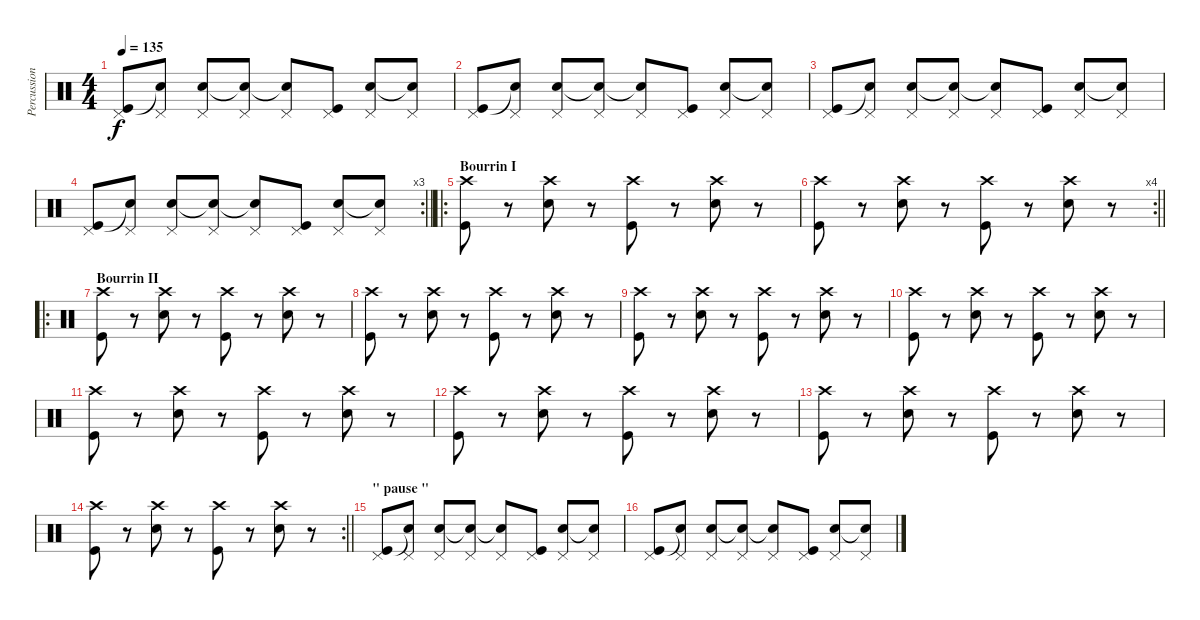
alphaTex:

\track ("Percussions" "Percussion") {instrument percussion}
\staff {score}
\articulation defaults
\ts (4 4)
\tempo 135
\clef neutral
\ks c
("Pedal Hi-Hat (hit)" "Kick (hit)").8{dy f} ("Pedal Hi-Hat (hit)" "Snare (hit)"{t}).8 ("Pedal Hi-Hat (hit)" "Electric Snare (hit)").8 ("Pedal Hi-Hat (hit)" "Snare (hit)"{t}).8 ("Pedal Hi-Hat (hit)" "Snare (hit)"{t}).8 ("Pedal Hi-Hat (hit)" "Kick (hit)").8 ("Pedal Hi-Hat (hit)" "Electric Snare (hit)").8 ("Pedal Hi-Hat (hit)" "Snare (hit)"{t}).8 |
("Pedal Hi-Hat (hit)" "Kick (hit)").8 ("Pedal Hi-Hat (hit)" "Snare (hit)"{t}).8 ("Pedal Hi-Hat (hit)" "Electric Snare (hit)").8 ("Pedal Hi-Hat (hit)" "Snare (hit)"{t}).8 ("Pedal Hi-Hat (hit)" "Snare (hit)"{t}).8 ("Pedal Hi-Hat (hit)" "Kick (hit)").8 ("Pedal Hi-Hat (hit)" "Electric Snare (hit)").8 ("Pedal Hi-Hat (hit)" "Snare (hit)"{t}).8 |
("Pedal Hi-Hat (hit)" "Kick (hit)").8 ("Pedal Hi-Hat (hit)" "Snare (hit)"{t}).8 ("Pedal Hi-Hat (hit)" "Electric Snare (hit)").8 ("Pedal Hi-Hat (hit)" "Snare (hit)"{t}).8 ("Pedal Hi-Hat (hit)" "Snare (hit)"{t}).8 ("Pedal Hi-Hat (hit)" "Kick (hit)").8 ("Pedal Hi-Hat (hit)" "Electric Snare (hit)").8 ("Pedal Hi-Hat (hit)" "Snare (hit)"{t}).8 |
\rc 3
\barLineRight lightlight
("Pedal Hi-Hat (hit)" "Kick (hit)").8 ("Pedal Hi-Hat (hit)" "Snare (hit)"{t}).8 ("Pedal Hi-Hat (hit)" "Electric Snare (hit)").8 ("Pedal Hi-Hat (hit)" "Snare (hit)"{t}).8 ("Pedal Hi-Hat (hit)" "Snare (hit)"{t}).8 ("Pedal Hi-Hat (hit)" "Kick (hit)").8 ("Pedal Hi-Hat (hit)" "Electric Snare (hit)").8 ("Pedal Hi-Hat (hit)" "Snare (hit)"{t}).8 |
\ro
\section ("" "Bourrin I")
("Crash high (hit)" "Kick (hit)").8 r.8 ("Crash high (hit)" "Electric Snare (hit)").8 r.8 ("Crash high (hit)" "Kick (hit)").8 r.8 ("Crash high (hit)" "Electric Snare (hit)").8 r.8 |
\rc 4
\barLineRight lightlight
("Crash high (hit)" "Kick (hit)").8 r.8 ("Crash high (hit)" "Electric Snare (hit)").8 r.8 ("Crash high (hit)" "Kick (hit)").8 r.8 ("Crash high (hit)" "Electric Snare (hit)").8 r.8 |
\ro
\section ("" "Bourrin II")
("Crash high (hit)" "Kick (hit)").8 r.8 ("Crash high (hit)" "Electric Snare (hit)").8 r.8 ("Crash high (hit)" "Kick (hit)").8 r.8 ("Crash high (hit)" "Electric Snare (hit)").8 r.8 |
("Crash high (hit)" "Kick (hit)").8 r.8 ("Crash high (hit)" "Electric Snare (hit)").8 r.8 ("Crash high (hit)" "Kick (hit)").8 r.8 ("Crash high (hit)" "Electric Snare (hit)").8 r.8 |
("Crash high (hit)" "Kick (hit)").8 r.8 ("Crash high (hit)" "Electric Snare (hit)").8 r.8 ("Crash high (hit)" "Kick (hit)").8 r.8 ("Crash high (hit)" "Electric Snare (hit)").8 r.8 |
("Crash high (hit)" "Kick (hit)").8 r.8 ("Crash high (hit)" "Electric Snare (hit)").8 r.8 ("Crash high (hit)" "Kick (hit)").8 r.8 ("Crash high (hit)" "Electric Snare (hit)").8 r.8 |
("Crash high (hit)" "Kick (hit)").8 r.8 ("Crash high (hit)" "Electric Snare (hit)").8 r.8 ("Crash high (hit)" "Kick (hit)").8 r.8 ("Crash high (hit)" "Electric Snare (hit)").8 r.8 |
("Crash high (hit)" "Kick (hit)").8 r.8 ("Crash high (hit)" "Electric Snare (hit)").8 r.8 ("Crash high (hit)" "Kick (hit)").8 r.8 ("Crash high (hit)" "Electric Snare (hit)").8 r.8 |
("Crash high (hit)" "Kick (hit)").8 r.8 ("Crash high (hit)" "Electric Snare (hit)").8 r.8 ("Crash high (hit)" "Kick (hit)").8 r.8 ("Crash high (hit)" "Electric Snare (hit)").8 r.8 |
\rc 2
\barLineRight lightlight
("Crash high (hit)" "Kick (hit)").8 r.8 ("Crash high (hit)" "Electric Snare (hit)").8 r.8 ("Crash high (hit)" "Kick (hit)").8 r.8 ("Crash high (hit)" "Electric Snare (hit)").8 r.8 |
\section ("" "\" pause \"")
("Pedal Hi-Hat (hit)" "Kick (hit)").8 ("Pedal Hi-Hat (hit)" "Snare (hit)"{t}).8 ("Pedal Hi-Hat (hit)" "Electric Snare (hit)").8 ("Pedal Hi-Hat (hit)" "Snare (hit)"{t}).8 ("Pedal Hi-Hat (hit)" "Snare (hit)"{t}).8 ("Pedal Hi-Hat (hit)" "Kick (hit)").8 ("Pedal Hi-Hat (hit)" "Electric Snare (hit)").8 ("Pedal Hi-Hat (hit)" "Snare (hit)"{t}).8 |
("Pedal Hi-Hat (hit)" "Kick (hit)").8 ("Pedal Hi-Hat (hit)" "Snare (hit)"{t}).8 ("Pedal Hi-Hat (hit)" "Electric Snare (hit)").8 ("Pedal Hi-Hat (hit)" "Snare (hit)"{t}).8 ("Pedal Hi-Hat (hit)" "Snare (hit)"{t}).8 ("Pedal Hi-Hat (hit)" "Kick (hit)").8 ("Pedal Hi-Hat (hit)" "Electric Snare (hit)").8 ("Pedal Hi-Hat (hit)" "Snare (hit)"{t}).8
